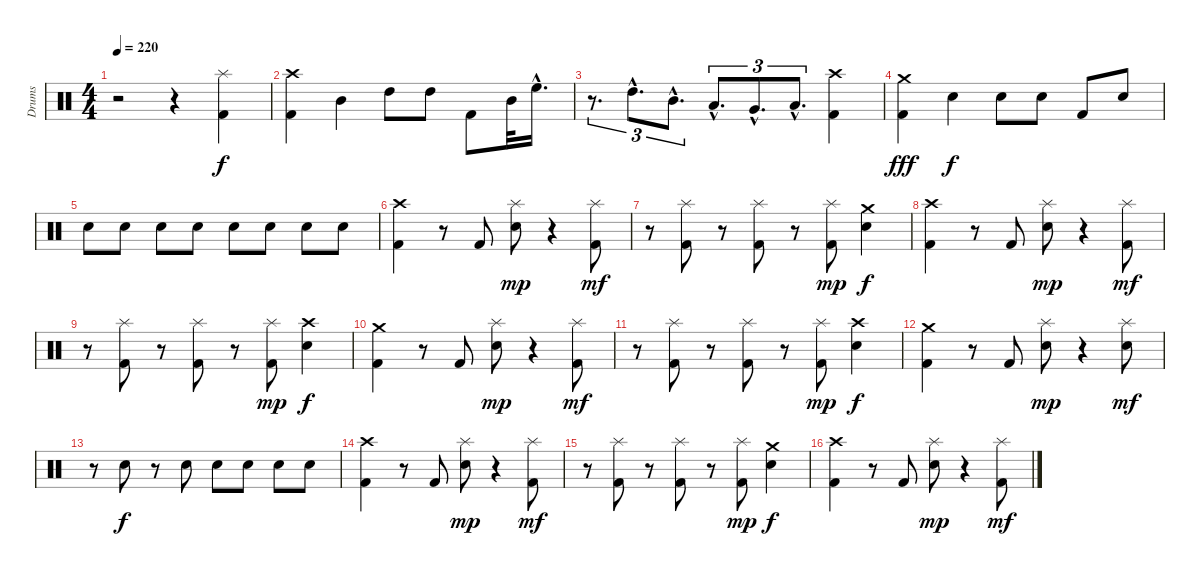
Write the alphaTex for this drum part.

\track ("Drums" "Drums") {instrument percussion}
\staff {score}
\articulation defaults
\ts (4 4)
\tempo 220
\clef neutral
\ks c
r.2{dy f} r.4 ("Splash (hit)" "Kick (hit) 2").4 |
("Crash high (hit)" "Kick (hit) 2").4 "Mid Tom (hit)".4 "High Tom (hit)".8 "High Tom (hit)".8 "Kick (hit) 2".8 "Mid Tom (hit)".32 "High Floor Tom (hit)"{hac}.16{d} |
r.8{d tu (3 2)} "High Tom (hit)"{hac}.8{d tu (3 2)} "Mid Tom (hit)"{hac}.8{d tu (3 2)} "Low Tom (hit)"{hac}.8{d tu (3 2)} "Very Low Tom (hit)"{hac}.8{d tu (3 2)} "Low Floor Tom (hit)"{hac}.8{d tu (3 2)} ("Crash high (hit)" "Kick (hit) 2").4 |
("Crash medium (hit)" "Kick (hit) 2").4{dy fff} "Snare (hit) 2".4{dy f} "Snare (hit) 2".8 "Snare (hit) 2".8 "Kick (hit) 2".8 "Snare (hit) 2".8 |
"Snare (hit) 2".8 "Snare (hit) 2".8 "Snare (hit) 2".8 "Snare (hit) 2".8 "Snare (hit) 2".8 "Snare (hit) 2".8 "Snare (hit) 2".8 "Snare (hit) 2".8 |
("Crash high (hit)" "Kick (hit) 2").4 r.8 "Kick (hit) 2".8 ("Splash (hit)" "Snare (hit) 2").8{dy mp} r.4 ("Splash (hit)" "Kick (hit) 2").8{dy mf} |
r.8 ("Splash (hit)" "Kick (hit) 2").8 r.8 ("Splash (hit)" "Kick (hit) 2").8 r.8 ("Splash (hit)" "Kick (hit) 2").8{dy mp} ("Crash medium (hit)" "Snare (hit) 2").4{dy f} |
("Crash high (hit)" "Kick (hit) 2").4 r.8 "Kick (hit) 2".8 ("Splash (hit)" "Snare (hit) 2").8{dy mp} r.4 ("Splash (hit)" "Kick (hit) 2").8{dy mf} |
r.8 ("Splash (hit)" "Kick (hit) 2").8 r.8 ("Splash (hit)" "Kick (hit) 2").8 r.8 ("Splash (hit)" "Kick (hit) 2").8{dy mp} ("Crash high (hit)" "Snare (hit) 2").4{dy f} |
("Crash medium (hit)" "Kick (hit) 2").4 r.8 "Kick (hit) 2".8 ("Splash (hit)" "Snare (hit) 2").8{dy mp} r.4 ("Splash (hit)" "Kick (hit) 2").8{dy mf} |
r.8 ("Splash (hit)" "Kick (hit) 2").8 r.8 ("Splash (hit)" "Kick (hit) 2").8 r.8 ("Splash (hit)" "Kick (hit) 2").8{dy mp} ("Crash high (hit)" "Snare (hit) 2").4{dy f} |
("Crash medium (hit)" "Kick (hit) 2").4 r.8 "Kick (hit) 2".8 ("Splash (hit)" "Snare (hit) 2").8{dy mp} r.4 ("Splash (hit)" "Snare (hit) 2").8{dy mf} |
r.8 "Snare (hit) 2".8{dy f} r.8 "Snare (hit) 2".8 "Snare (hit) 2".8 "Snare (hit) 2".8 "Snare (hit) 2".8 "Snare (hit) 2".8 |
("Crash high (hit)" "Kick (hit) 2").4 r.8 "Kick (hit) 2".8 ("Splash (hit)" "Snare (hit) 2").8{dy mp} r.4 ("Splash (hit)" "Kick (hit) 2").8{dy mf} |
r.8 ("Splash (hit)" "Kick (hit) 2").8 r.8 ("Splash (hit)" "Kick (hit) 2").8 r.8 ("Splash (hit)" "Kick (hit) 2").8{dy mp} ("Crash medium (hit)" "Snare (hit) 2").4{dy f} |
("Crash high (hit)" "Kick (hit) 2").4 r.8 "Kick (hit) 2".8 ("Splash (hit)" "Snare (hit) 2").8{dy mp} r.4 ("Splash (hit)" "Kick (hit) 2").8{dy mf}
